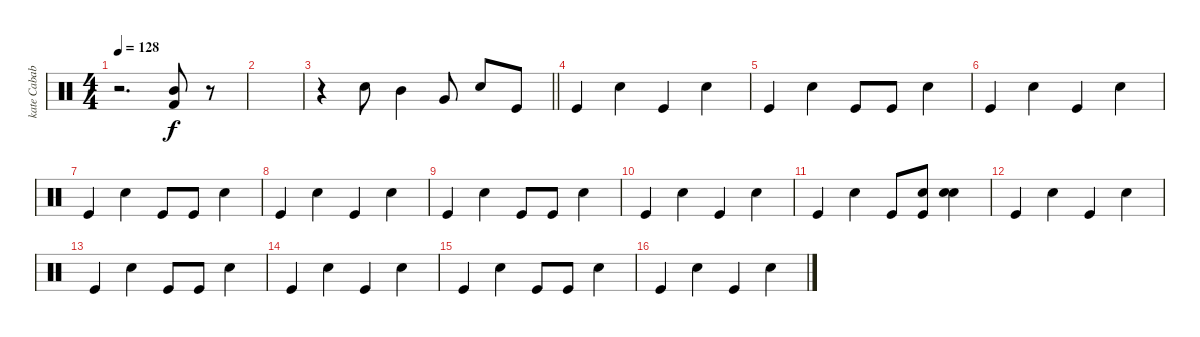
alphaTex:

\track ("kate Cababe" "kate Cabab") {instrument percussion}
\staff {score}
\articulation defaults
\ts (4 4)
\tempo 128
\clef neutral
\ks c
r.2{d dy f} ("Mid Tom (hit)" "Kick (hit) 2").8 r.8 |
|
\barLineRight lightlight
r.4 "Snare (hit) 2".8 "Mid Tom (hit)".4 "Very Low Tom (hit)".8 "Snare (hit) 2".8 "Kick (hit)".8 |
"Kick (hit)".4 "Snare (hit) 2".4 "Kick (hit)".4 "Snare (hit) 2".4 |
"Kick (hit)".4 "Snare (hit) 2".4 "Kick (hit)".8 "Kick (hit)".8 "Snare (hit) 2".4 |
"Kick (hit)".4 "Snare (hit) 2".4 "Kick (hit)".4 "Snare (hit) 2".4 |
"Kick (hit)".4 "Snare (hit) 2".4 "Kick (hit)".8 "Kick (hit)".8 "Snare (hit) 2".4 |
"Kick (hit)".4 "Snare (hit) 2".4 "Kick (hit)".4 "Snare (hit) 2".4 |
"Kick (hit)".4 "Snare (hit) 2".4 "Kick (hit)".8 "Kick (hit)".8 "Snare (hit) 2".4 |
"Kick (hit)".4 "Snare (hit) 2".4 "Kick (hit)".4 "Snare (hit) 2".4 |
"Kick (hit)".4 "Snare (hit) 2".4 "Kick (hit)".8 ("Kick (hit)" "Snare (hit) 2").8 ("Snare (hit) 2" "Snare (hit) 2").4 |
"Kick (hit)".4 "Snare (hit) 2".4 "Kick (hit)".4 "Snare (hit) 2".4 |
"Kick (hit)".4 "Snare (hit) 2".4 "Kick (hit)".8 "Kick (hit)".8 "Snare (hit) 2".4 |
"Kick (hit)".4 "Snare (hit) 2".4 "Kick (hit)".4 "Snare (hit) 2".4 |
"Kick (hit)".4 "Snare (hit) 2".4 "Kick (hit)".8 "Kick (hit)".8 "Snare (hit) 2".4 |
"Kick (hit)".4 "Snare (hit) 2".4 "Kick (hit)".4 "Snare (hit) 2".4
